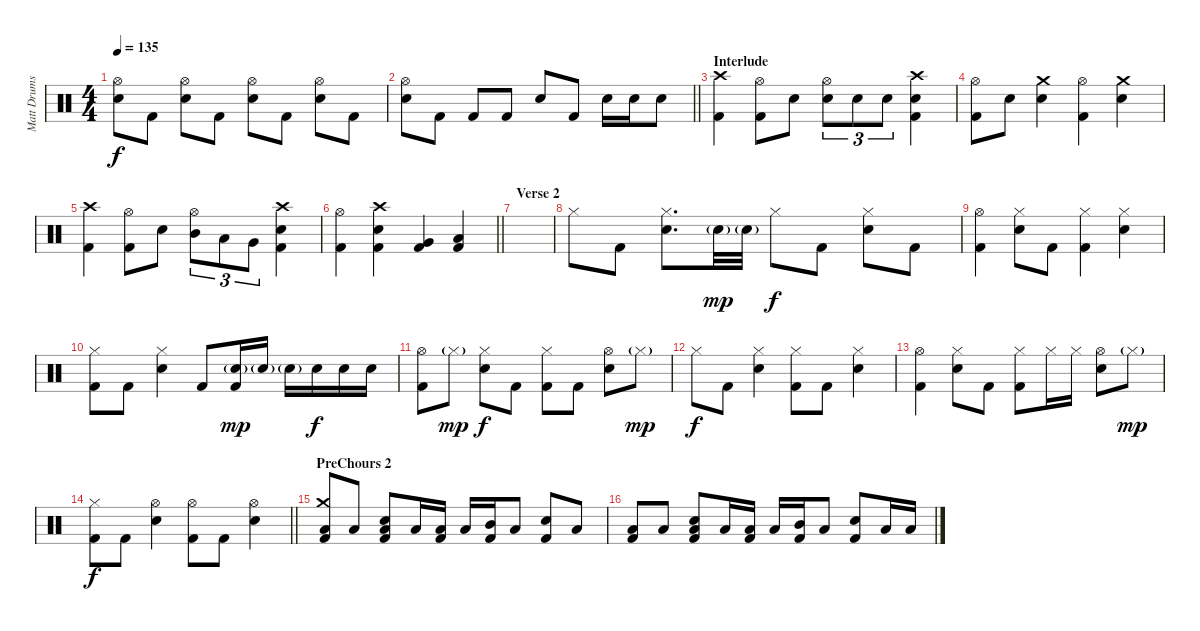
\track ("Matt Drums" "Matt Drums") {instrument percussion}
\staff {score}
\articulation defaults
\ts (4 4)
\tempo 135
\clef neutral
\ks c
("Hi-Hat (open)" "Snare (hit) 2").8{dy f} "Kick (hit) 2".8 ("Hi-Hat (open)" "Snare (hit) 2").8 "Kick (hit) 2".8 ("Hi-Hat (open)" "Snare (hit) 2").8 "Kick (hit) 2".8 ("Hi-Hat (open)" "Snare (hit) 2").8 "Kick (hit) 2".8 |
\barLineRight lightlight
("Hi-Hat (open)" "Snare (hit) 2").8 "Kick (hit) 2".8 "Kick (hit) 2".8 "Kick (hit) 2".8 "Snare (hit) 2".8 "Kick (hit) 2".8 "Snare (hit) 2".16 "Snare (hit) 2".16 "Snare (hit) 2".8 |
\section ("" "Interlude")
("Crash high (hit)" "Kick (hit) 2").4 ("Hi-Hat (open)" "Kick (hit) 2").8 "Snare (hit) 2".8 ("Hi-Hat (open)" "Snare (hit) 2").8{tu (3 2)} "Snare (hit) 2".8{tu (3 2)} "Snare (hit) 2".8{tu (3 2)} ("Crash high (hit)" "Snare (hit) 2" "Kick (hit) 2").4 |
("Hi-Hat (open)" "Kick (hit) 2").8 "Snare (hit) 2".8 ("Crash medium (hit)" "Snare (hit) 2").4 ("Hi-Hat (open)" "Kick (hit) 2").4 ("Crash medium (hit)" "Snare (hit) 2").4 |
("Crash high (hit)" "Kick (hit) 2").4 ("Hi-Hat (open)" "Kick (hit) 2").8 "Snare (hit) 2".8 ("Hi-Hat (open)" "Mid Tom (hit)").8{tu (3 2)} "Low Tom (hit)".8{tu (3 2)} "Very Low Tom (hit)".8{tu (3 2)} ("Crash high (hit)" "Snare (hit) 2" "Kick (hit) 2").4 |
\barLineRight lightlight
("Hi-Hat (open)" "Kick (hit) 2").4 ("Crash high (hit)" "Snare (hit) 2" "Kick (hit) 2").4 ("Very Low Tom (hit)" "Kick (hit) 2").4 ("Low Floor Tom (hit)" "Kick (hit) 2").4 |
\section ("" "Verse 2")
|
"Hi-Hat (closed)".8 "Kick (hit) 2".8 ("Hi-Hat (closed)" "Snare (hit) 2").8{d} "Snare (hit) 2"{g}.32{dy mp} "Snare (hit) 2"{g}.32 "Hi-Hat (closed)".8{dy f} "Kick (hit) 2".8 ("Hi-Hat (closed)" "Snare (hit) 2").8 "Kick (hit) 2".8 |
("Hi-Hat (open)" "Kick (hit) 2").4 ("Hi-Hat (closed)" "Snare (hit) 2").8 "Kick (hit) 2".8 ("Hi-Hat (closed)" "Kick (hit) 2").4 ("Hi-Hat (closed)" "Snare (hit) 2").4 |
("Hi-Hat (closed)" "Kick (hit) 2").8 "Kick (hit) 2".8 ("Hi-Hat (closed)" "Snare (hit) 2").4 "Kick (hit) 2".8 ("Snare (hit) 2"{g} "Kick (hit) 2").16{dy mp} "Snare (hit) 2"{g}.16 "Snare (hit) 2"{g}.16 "Snare (hit) 2".16{dy f} "Snare (hit) 2".16 "Snare (hit) 2".16 |
("Hi-Hat (open)" "Kick (hit) 2").8 "Hi-Hat (closed)"{g}.8{dy mp} ("Hi-Hat (closed)" "Snare (hit) 2").8{dy f} "Kick (hit) 2".8 ("Hi-Hat (closed)" "Kick (hit) 2").8 "Kick (hit) 2".8 ("Hi-Hat (open)" "Snare (hit) 2").8 "Hi-Hat (closed)"{g}.8{dy mp} |
"Hi-Hat (closed)".8{dy f} "Kick (hit) 2".8 ("Hi-Hat (closed)" "Snare (hit) 2").4 ("Hi-Hat (closed)" "Kick (hit) 2").8 "Kick (hit) 2".8 ("Hi-Hat (closed)" "Snare (hit) 2").4 |
("Hi-Hat (open)" "Kick (hit) 2").4 ("Hi-Hat (closed)" "Snare (hit) 2").8 "Kick (hit) 2".8 ("Hi-Hat (closed)" "Kick (hit) 2").8 "Hi-Hat (closed)".16 "Hi-Hat (closed)".16 ("Hi-Hat (open)" "Snare (hit) 2").8 "Hi-Hat (closed)"{g}.8{dy mp} |
\barLineRight lightlight
("Hi-Hat (closed)" "Kick (hit) 2").8{dy f} "Kick (hit) 2".8 ("Hi-Hat (open)" "Snare (hit) 2").4 ("Hi-Hat (open)" "Kick (hit) 2").8 "Kick (hit) 2".8 ("Hi-Hat (open)" "Snare (hit) 2").4 |
\section ("" "PreChours 2")
("Crash medium (hit)" "Low Floor Tom (hit)" "Kick (hit) 2").8 "Low Floor Tom (hit)".8 ("Snare (hit) 2" "Low Floor Tom (hit)" "Kick (hit) 2").8 "Low Floor Tom (hit)".16 ("Low Tom (hit)" "Kick (hit) 2").16 "Low Floor Tom (hit)".16 ("Mid Tom (hit)" "Kick (hit) 2").16 "Low Floor Tom (hit)".8 ("Snare (hit) 2" "Kick (hit) 2").8 "Low Floor Tom (hit)".8 |
("Low Floor Tom (hit)" "Kick (hit) 2").8 "Low Floor Tom (hit)".8 ("Snare (hit) 2" "Low Floor Tom (hit)" "Kick (hit) 2").8 "Low Floor Tom (hit)".16 ("Low Tom (hit)" "Kick (hit) 2").16 "Low Floor Tom (hit)".16 ("Mid Tom (hit)" "Kick (hit) 2").16 "Low Floor Tom (hit)".8 ("Snare (hit) 2" "Kick (hit) 2").8 "Low Tom (hit)".16 "Low Floor Tom (hit)".16
